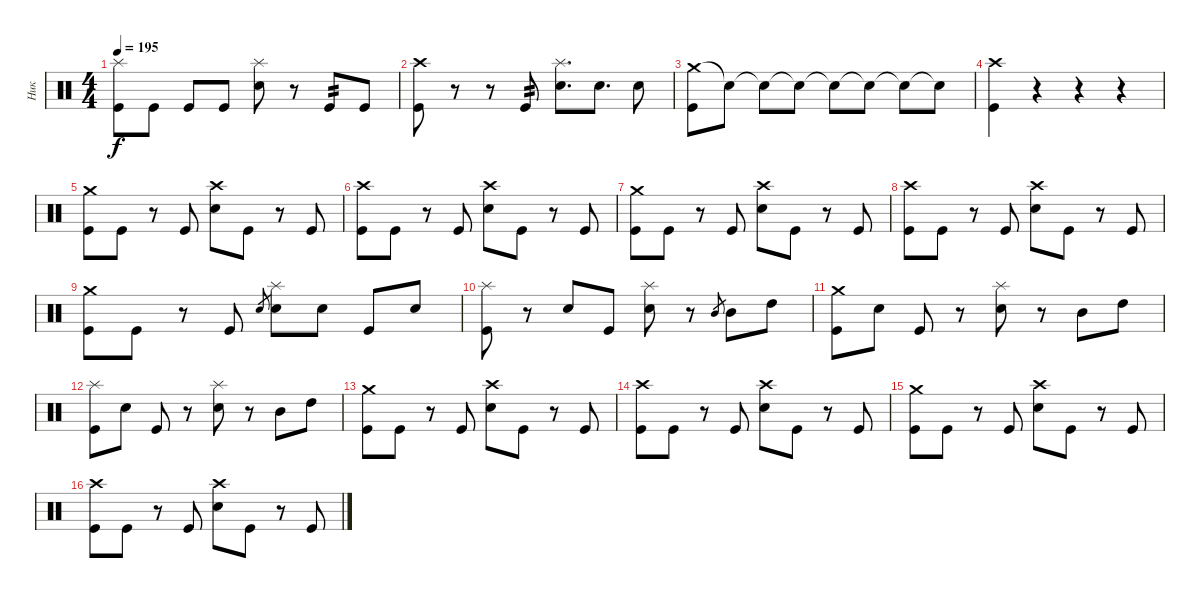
\track ("Ник" "Ник") {instrument percussion}
\staff {score}
\articulation defaults
\ts (4 4)
\tempo 195
\clef neutral
\ks c
("Splash (hit)" "Kick (hit)").8{dy f} "Kick (hit)".8 "Kick (hit)".8 "Kick (hit)".8 ("Splash (hit)" "Snare (hit) 2").8 r.8 "Kick (hit)".8{tp 2} "Kick (hit)".8 |
("Crash high (hit)" "Kick (hit)").8 r.8 r.8 "Kick (hit)".8{tp 2} ("Splash (hit)" "Snare (hit) 2").8{d} "Snare (hit) 2".8{d} "Snare (hit) 2".8 |
("Crash medium (hit)" "Kick (hit)").8 "Snare (hit)"{t}.8 "Snare (hit)"{t}.8 "Snare (hit)"{t}.8 "Snare (hit)"{t}.8 "Snare (hit)"{t}.8 "Snare (hit)"{t}.8 "Snare (hit)"{t}.8 |
("Crash high (hit)" "Kick (hit)").4 r.4 r.4 r.4 |
("Crash medium (hit)" "Kick (hit)").8 "Kick (hit)".8 r.8 "Kick (hit)".8 ("Crash high (hit)" "Snare (hit) 2").8 "Kick (hit)".8 r.8 "Kick (hit)".8 |
("Crash high (hit)" "Kick (hit)").8 "Kick (hit)".8 r.8 "Kick (hit)".8 ("Crash high (hit)" "Snare (hit) 2").8 "Kick (hit)".8 r.8 "Kick (hit)".8 |
("Crash medium (hit)" "Kick (hit)").8 "Kick (hit)".8 r.8 "Kick (hit)".8 ("Crash high (hit)" "Snare (hit) 2").8 "Kick (hit)".8 r.8 "Kick (hit)".8 |
("Crash high (hit)" "Kick (hit)").8 "Kick (hit)".8 r.8 "Kick (hit)".8 ("Crash high (hit)" "Snare (hit) 2").8 "Kick (hit)".8 r.8 "Kick (hit)".8 |
("Crash medium (hit)" "Kick (hit)").8 "Kick (hit)".8 r.8 "Kick (hit)".8 "Snare (hit) 2".8{gr} ("Splash (hit)" "Snare (hit) 2").8 "Snare (hit) 2".8 "Kick (hit)".8 "Snare (hit) 2".8 |
("Splash (hit)" "Kick (hit)").8 r.8 "Snare (hit) 2".8 "Kick (hit)".8 ("Splash (hit)" "Snare (hit) 2").8 r.8 "Mid Tom (hit)".8{gr} "Mid Tom (hit)".8 "High Tom (hit)".8 |
("Crash medium (hit)" "Kick (hit)").8 "Snare (hit) 2".8 "Kick (hit)".8 r.8 ("Splash (hit)" "Snare (hit) 2").8 r.8 "Mid Tom (hit)".8 "High Tom (hit)".8 |
("Splash (hit)" "Kick (hit)").8 "Snare (hit) 2".8 "Kick (hit)".8 r.8 ("Splash (hit)" "Snare (hit) 2").8 r.8 "Mid Tom (hit)".8 "High Tom (hit)".8 |
("Crash medium (hit)" "Kick (hit)").8 "Kick (hit)".8 r.8 "Kick (hit)".8 ("Crash high (hit)" "Snare (hit) 2").8 "Kick (hit)".8 r.8 "Kick (hit)".8 |
("Crash high (hit)" "Kick (hit)").8 "Kick (hit)".8 r.8 "Kick (hit)".8 ("Crash high (hit)" "Snare (hit) 2").8 "Kick (hit)".8 r.8 "Kick (hit)".8 |
("Crash medium (hit)" "Kick (hit)").8 "Kick (hit)".8 r.8 "Kick (hit)".8 ("Crash high (hit)" "Snare (hit) 2").8 "Kick (hit)".8 r.8 "Kick (hit)".8 |
("Crash high (hit)" "Kick (hit)").8 "Kick (hit)".8 r.8 "Kick (hit)".8 ("Crash high (hit)" "Snare (hit) 2").8 "Kick (hit)".8 r.8 "Kick (hit)".8
